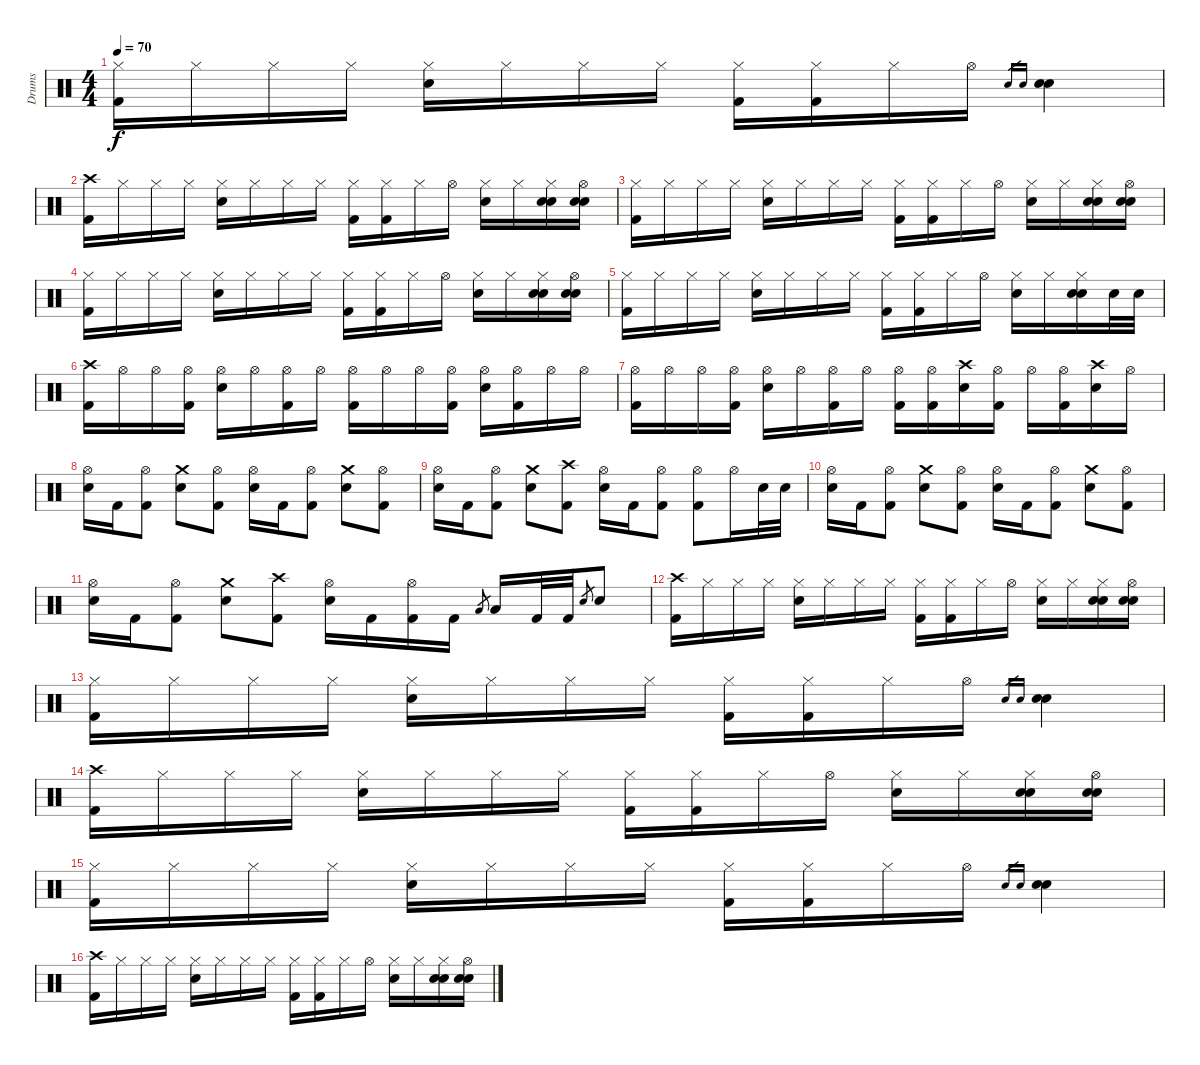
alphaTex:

\track ("Drums" "Drums") {instrument percussion}
\staff {score}
\articulation defaults
\ts (4 4)
\tempo 70
\clef neutral
\ks c
("Hi-Hat (closed)" "Kick (hit) 2").16{dy f} "Hi-Hat (closed)".16 "Hi-Hat (closed)".16 "Hi-Hat (closed)".16 ("Hi-Hat (closed)" "Electric Snare (hit)").16 "Hi-Hat (closed)".16 "Hi-Hat (closed)".16 "Hi-Hat (closed)".16 ("Hi-Hat (closed)" "Kick (hit) 2").16 ("Hi-Hat (closed)" "Kick (hit) 2").16 "Hi-Hat (closed)".16 "Hi-Hat (open)".16 "Hand Clap (hit)".16{gr} "Electric Snare (hit)".16{gr} ("Hand Clap (hit)" "Electric Snare (hit)").4 |
("Crash high (hit)" "Kick (hit) 2").16 "Hi-Hat (closed)".16 "Hi-Hat (closed)".16 "Hi-Hat (closed)".16 ("Hi-Hat (closed)" "Electric Snare (hit)").16 "Hi-Hat (closed)".16 "Hi-Hat (closed)".16 "Hi-Hat (closed)".16 ("Hi-Hat (closed)" "Kick (hit) 2").16 ("Hi-Hat (closed)" "Kick (hit) 2").16 "Hi-Hat (closed)".16 "Hi-Hat (open)".16 ("Hi-Hat (closed)" "Electric Snare (hit)").16 "Hi-Hat (closed)".16 ("Hi-Hat (closed)" "Hand Clap (hit)" "Electric Snare (hit)").16 ("Hi-Hat (open)" "Hand Clap (hit)" "Electric Snare (hit)").16 |
("Hi-Hat (closed)" "Kick (hit) 2").16 "Hi-Hat (closed)".16 "Hi-Hat (closed)".16 "Hi-Hat (closed)".16 ("Hi-Hat (closed)" "Electric Snare (hit)").16 "Hi-Hat (closed)".16 "Hi-Hat (closed)".16 "Hi-Hat (closed)".16 ("Hi-Hat (closed)" "Kick (hit) 2").16 ("Hi-Hat (closed)" "Kick (hit) 2").16 "Hi-Hat (closed)".16 "Hi-Hat (open)".16 ("Hi-Hat (closed)" "Electric Snare (hit)").16 "Hi-Hat (closed)".16 ("Hi-Hat (closed)" "Hand Clap (hit)" "Electric Snare (hit)").16 ("Hi-Hat (open)" "Hand Clap (hit)" "Electric Snare (hit)").16 |
("Hi-Hat (closed)" "Kick (hit) 2").16 "Hi-Hat (closed)".16 "Hi-Hat (closed)".16 "Hi-Hat (closed)".16 ("Hi-Hat (closed)" "Electric Snare (hit)").16 "Hi-Hat (closed)".16 "Hi-Hat (closed)".16 "Hi-Hat (closed)".16 ("Hi-Hat (closed)" "Kick (hit) 2").16 ("Hi-Hat (closed)" "Kick (hit) 2").16 "Hi-Hat (closed)".16 "Hi-Hat (open)".16 ("Hi-Hat (closed)" "Electric Snare (hit)").16 "Hi-Hat (closed)".16 ("Hi-Hat (closed)" "Hand Clap (hit)" "Electric Snare (hit)").16 ("Hi-Hat (open)" "Hand Clap (hit)" "Electric Snare (hit)").16 |
("Hi-Hat (closed)" "Kick (hit) 2").16 "Hi-Hat (closed)".16 "Hi-Hat (closed)".16 "Hi-Hat (closed)".16 ("Hi-Hat (closed)" "Electric Snare (hit)").16 "Hi-Hat (closed)".16 "Hi-Hat (closed)".16 "Hi-Hat (closed)".16 ("Hi-Hat (closed)" "Kick (hit) 2").16 ("Hi-Hat (closed)" "Kick (hit) 2").16 "Hi-Hat (closed)".16 "Hi-Hat (open)".16 ("Hi-Hat (closed)" "Electric Snare (hit)").16 "Hi-Hat (closed)".16 ("Hi-Hat (closed)" "Hand Clap (hit)" "Electric Snare (hit)").16 "Electric Snare (hit)".32 "Electric Snare (hit)".32 |
("Crash high (hit)" "Kick (hit) 2").16 "Hi-Hat (open)".16 "Hi-Hat (open)".16 ("Hi-Hat (open)" "Kick (hit) 2").16 ("Hi-Hat (open)" "Electric Snare (hit)").16 "Hi-Hat (open)".16 ("Hi-Hat (open)" "Kick (hit) 2").16 "Hi-Hat (open)".16 ("Hi-Hat (open)" "Kick (hit) 2").16 "Hi-Hat (open)".16 "Hi-Hat (open)".16 ("Hi-Hat (open)" "Kick (hit) 2").16 ("Hi-Hat (open)" "Electric Snare (hit)").16 ("Hi-Hat (open)" "Kick (hit) 2").16 "Hi-Hat (open)".16 "Hi-Hat (open)".16 |
("Hi-Hat (open)" "Kick (hit) 2").16 "Hi-Hat (open)".16 "Hi-Hat (open)".16 ("Hi-Hat (open)" "Kick (hit) 2").16 ("Hi-Hat (open)" "Electric Snare (hit)").16 "Hi-Hat (open)".16 ("Hi-Hat (open)" "Kick (hit) 2").16 "Hi-Hat (open)".16 ("Hi-Hat (open)" "Kick (hit) 2").16 ("Hi-Hat (open)" "Kick (hit) 2").16 ("Crash high (hit)" "Electric Snare (hit)").16 ("Hi-Hat (open)" "Kick (hit) 2").16 "Hi-Hat (open)".16 ("Hi-Hat (open)" "Kick (hit) 2").16 ("Crash high (hit)" "Electric Snare (hit)").16 "Hi-Hat (open)".16 |
("Hi-Hat (open)" "Electric Snare (hit)").16 "Kick (hit) 2".16 ("Hi-Hat (open)" "Kick (hit) 2").8 ("Crash medium (hit)" "Electric Snare (hit)").8 ("Hi-Hat (open)" "Kick (hit) 2").8 ("Hi-Hat (open)" "Electric Snare (hit)").16 "Kick (hit) 2".16 ("Hi-Hat (open)" "Kick (hit) 2").8 ("Crash medium (hit)" "Electric Snare (hit)").8 ("Hi-Hat (open)" "Kick (hit) 2").8 |
("Hi-Hat (open)" "Electric Snare (hit)").16 "Kick (hit) 2".16 ("Hi-Hat (open)" "Kick (hit) 2").8 ("Crash medium (hit)" "Electric Snare (hit)").8 ("Crash high (hit)" "Kick (hit) 2").8 ("Hi-Hat (open)" "Electric Snare (hit)").16 "Kick (hit) 2".16 ("Hi-Hat (open)" "Kick (hit) 2").8 ("Hi-Hat (open)" "Kick (hit) 2").8 "Hi-Hat (open)".16 "Electric Snare (hit)".32 "Electric Snare (hit)".32 |
("Hi-Hat (open)" "Electric Snare (hit)").16 "Kick (hit) 2".16 ("Hi-Hat (open)" "Kick (hit) 2").8 ("Crash medium (hit)" "Electric Snare (hit)").8 ("Hi-Hat (open)" "Kick (hit) 2").8 ("Hi-Hat (open)" "Electric Snare (hit)").16 "Kick (hit) 2".16 ("Hi-Hat (open)" "Kick (hit) 2").8 ("Crash medium (hit)" "Electric Snare (hit)").8 ("Hi-Hat (open)" "Kick (hit) 2").8 |
("Hi-Hat (open)" "Electric Snare (hit)").16 "Kick (hit) 2".16 ("Hi-Hat (open)" "Kick (hit) 2").8 ("Crash medium (hit)" "Electric Snare (hit)").8 ("Crash high (hit)" "Kick (hit) 2").8 ("Hi-Hat (open)" "Electric Snare (hit)").16 "Kick (hit) 2".16 ("Hi-Hat (open)" "Kick (hit) 2").16 "Kick (hit) 2".16 "Low Floor Tom (hit)".8{gr} "Low Floor Tom (hit)".16 "Kick (hit) 2".32 "Kick (hit) 2".32 "Electric Snare (hit)".8{gr} "Electric Snare (hit)".8 |
("Crash high (hit)" "Kick (hit) 2").16 "Hi-Hat (closed)".16 "Hi-Hat (closed)".16 "Hi-Hat (closed)".16 ("Hi-Hat (closed)" "Electric Snare (hit)").16 "Hi-Hat (closed)".16 "Hi-Hat (closed)".16 "Hi-Hat (closed)".16 ("Hi-Hat (closed)" "Kick (hit) 2").16 ("Hi-Hat (closed)" "Kick (hit) 2").16 "Hi-Hat (closed)".16 "Hi-Hat (open)".16 ("Hi-Hat (closed)" "Electric Snare (hit)").16 "Hi-Hat (closed)".16 ("Hi-Hat (closed)" "Hand Clap (hit)" "Electric Snare (hit)").16 ("Hi-Hat (open)" "Hand Clap (hit)" "Electric Snare (hit)").16 |
("Hi-Hat (closed)" "Kick (hit) 2").16 "Hi-Hat (closed)".16 "Hi-Hat (closed)".16 "Hi-Hat (closed)".16 ("Hi-Hat (closed)" "Electric Snare (hit)").16 "Hi-Hat (closed)".16 "Hi-Hat (closed)".16 "Hi-Hat (closed)".16 ("Hi-Hat (closed)" "Kick (hit) 2").16 ("Hi-Hat (closed)" "Kick (hit) 2").16 "Hi-Hat (closed)".16 "Hi-Hat (open)".16 "Hand Clap (hit)".16{gr} "Electric Snare (hit)".16{gr} ("Hand Clap (hit)" "Electric Snare (hit)").4 |
("Crash high (hit)" "Kick (hit) 2").16 "Hi-Hat (closed)".16 "Hi-Hat (closed)".16 "Hi-Hat (closed)".16 ("Hi-Hat (closed)" "Electric Snare (hit)").16 "Hi-Hat (closed)".16 "Hi-Hat (closed)".16 "Hi-Hat (closed)".16 ("Hi-Hat (closed)" "Kick (hit) 2").16 ("Hi-Hat (closed)" "Kick (hit) 2").16 "Hi-Hat (closed)".16 "Hi-Hat (open)".16 ("Hi-Hat (closed)" "Electric Snare (hit)").16 "Hi-Hat (closed)".16 ("Hi-Hat (closed)" "Hand Clap (hit)" "Electric Snare (hit)").16 ("Hi-Hat (open)" "Hand Clap (hit)" "Electric Snare (hit)").16 |
("Hi-Hat (closed)" "Kick (hit) 2").16 "Hi-Hat (closed)".16 "Hi-Hat (closed)".16 "Hi-Hat (closed)".16 ("Hi-Hat (closed)" "Electric Snare (hit)").16 "Hi-Hat (closed)".16 "Hi-Hat (closed)".16 "Hi-Hat (closed)".16 ("Hi-Hat (closed)" "Kick (hit) 2").16 ("Hi-Hat (closed)" "Kick (hit) 2").16 "Hi-Hat (closed)".16 "Hi-Hat (open)".16 "Hand Clap (hit)".16{gr} "Electric Snare (hit)".16{gr} ("Hand Clap (hit)" "Electric Snare (hit)").4 |
("Crash high (hit)" "Kick (hit) 2").16 "Hi-Hat (closed)".16 "Hi-Hat (closed)".16 "Hi-Hat (closed)".16 ("Hi-Hat (closed)" "Electric Snare (hit)").16 "Hi-Hat (closed)".16 "Hi-Hat (closed)".16 "Hi-Hat (closed)".16 ("Hi-Hat (closed)" "Kick (hit) 2").16 ("Hi-Hat (closed)" "Kick (hit) 2").16 "Hi-Hat (closed)".16 "Hi-Hat (open)".16 ("Hi-Hat (closed)" "Electric Snare (hit)").16 "Hi-Hat (closed)".16 ("Hi-Hat (closed)" "Hand Clap (hit)" "Electric Snare (hit)").16 ("Hi-Hat (open)" "Hand Clap (hit)" "Electric Snare (hit)").16
